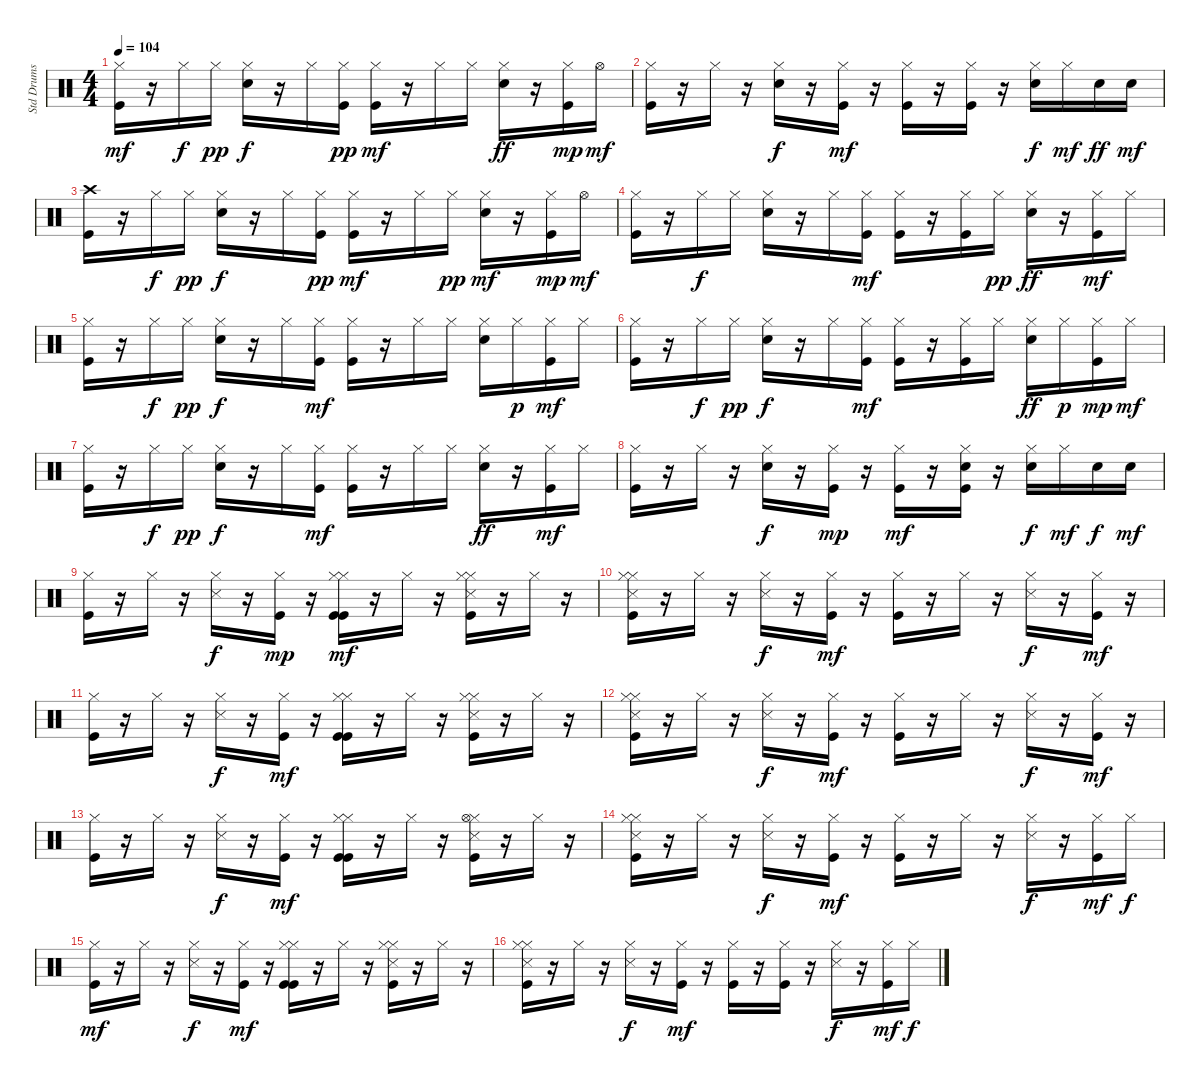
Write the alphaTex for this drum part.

\track ("Std Drums" "Std Drums") {instrument percussion}
\staff {score}
\articulation defaults
\ts (4 4)
\tempo 104
\clef neutral
\ks c
("Kick (hit)" "Hi-Hat (closed)").16{dy mf} r.16 "Hi-Hat (closed)".16{dy f} "Hi-Hat (closed)".16{dy pp} ("Snare (hit) 2" "Hi-Hat (closed)").16{dy f} r.16 "Hi-Hat (closed)".16 ("Kick (hit)" "Hi-Hat (closed)").16{dy pp} ("Hi-Hat (closed)" "Kick (hit)").16{dy mf} r.16 "Hi-Hat (closed)".16 "Hi-Hat (closed)".16 ("Snare (hit) 2" "Hi-Hat (closed)").16{dy ff} r.16 ("Kick (hit)" "Hi-Hat (closed)").16{dy mp} "Hi-Hat (open)".16{dy mf} |
("Hi-Hat (closed)" "Kick (hit)").16 r.16 "Hi-Hat (closed)".16 r.16 ("Snare (hit) 2" "Hi-Hat (closed)").16{dy f} r.16 ("Kick (hit)" "Hi-Hat (closed)").16{dy mf} r.16 ("Kick (hit)" "Hi-Hat (closed)").16 r.16 ("Kick (hit)" "Hi-Hat (closed)").16 r.16 ("Hi-Hat (closed)" "Snare (hit) 2").16{dy f} "Hi-Hat (closed)".16{dy mf} "Snare (hit) 2".16{dy ff} "Snare (hit) 2".16{dy mf} |
("Kick (hit)" "Crash high (hit)").16 r.16 "Hi-Hat (closed)".16{dy f} "Hi-Hat (closed)".16{dy pp} ("Snare (hit) 2" "Hi-Hat (closed)").16{dy f} r.16 "Hi-Hat (closed)".16 ("Kick (hit)" "Hi-Hat (closed)").16{dy pp} ("Kick (hit)" "Hi-Hat (closed)").16{dy mf} r.16 "Hi-Hat (closed)".16 "Hi-Hat (closed)".16{dy pp} ("Hi-Hat (closed)" "Snare (hit) 2").16{dy mf} r.16 ("Kick (hit)" "Hi-Hat (closed)").16{dy mp} "Hi-Hat (open)".16{dy mf} |
("Hi-Hat (closed)" "Kick (hit)").16 r.16 "Hi-Hat (closed)".16{dy f} "Hi-Hat (closed)".16 ("Hi-Hat (closed)" "Snare (hit) 2").16 r.16 "Hi-Hat (closed)".16 ("Hi-Hat (closed)" "Kick (hit)").16{dy mf} ("Hi-Hat (closed)" "Kick (hit)").16 r.16 ("Hi-Hat (closed)" "Kick (hit)").16 "Hi-Hat (closed)".16{dy pp} ("Snare (hit) 2" "Hi-Hat (closed)").16{dy ff} r.16 ("Hi-Hat (closed)" "Kick (hit)").16{dy mf} "Hi-Hat (closed)".16 |
("Kick (hit)" "Hi-Hat (closed)").16 r.16 "Hi-Hat (closed)".16{dy f} "Hi-Hat (closed)".16{dy pp} ("Snare (hit) 2" "Hi-Hat (closed)").16{dy f} r.16 "Hi-Hat (closed)".16 ("Hi-Hat (closed)" "Kick (hit)").16{dy mf} ("Hi-Hat (closed)" "Kick (hit)").16 r.16 "Hi-Hat (closed)".16 "Hi-Hat (closed)".16 ("Hi-Hat (closed)" "Snare (hit) 2").16 "Hi-Hat (closed)".16{dy p} ("Hi-Hat (closed)" "Kick (hit)").16{dy mf} "Hi-Hat (closed)".16 |
("Kick (hit)" "Hi-Hat (closed)").16 r.16 "Hi-Hat (closed)".16{dy f} "Hi-Hat (closed)".16{dy pp} ("Snare (hit) 2" "Hi-Hat (closed)").16{dy f} r.16 "Hi-Hat (closed)".16 ("Hi-Hat (closed)" "Kick (hit)").16{dy mf} ("Hi-Hat (closed)" "Kick (hit)").16 r.16 ("Hi-Hat (closed)" "Kick (hit)").16 "Hi-Hat (closed)".16 ("Snare (hit) 2" "Hi-Hat (closed)").16{dy ff} "Hi-Hat (closed)".16{dy p} ("Kick (hit)" "Hi-Hat (closed)").16{dy mp} "Hi-Hat (closed)".16{dy mf} |
("Kick (hit)" "Hi-Hat (closed)").16 r.16 "Hi-Hat (closed)".16{dy f} "Hi-Hat (closed)".16{dy pp} ("Hi-Hat (closed)" "Snare (hit) 2").16{dy f} r.16 "Hi-Hat (closed)".16 ("Hi-Hat (closed)" "Kick (hit)").16{dy mf} ("Kick (hit)" "Hi-Hat (closed)").16 r.16 "Hi-Hat (closed)".16 "Hi-Hat (closed)".16 ("Snare (hit) 2" "Hi-Hat (closed)").16{dy ff} r.16 ("Hi-Hat (closed)" "Kick (hit)").16{dy mf} "Hi-Hat (closed)".16 |
("Kick (hit)" "Hi-Hat (closed)").16 r.16 "Hi-Hat (closed)".16 r.16 ("Hi-Hat (closed)" "Snare (hit) 2").16{dy f} r.16 ("Hi-Hat (closed)" "Kick (hit)").16{dy mp} r.16 ("Hi-Hat (closed)" "Kick (hit)").16{dy mf} r.16 ("Hi-Hat (closed)" "Snare (hit) 2" "Kick (hit)").16 r.16 ("Snare (hit) 2" "Hi-Hat (closed)").16{dy f} "Hi-Hat (closed)".16{dy mf} "Snare (hit) 2".16{dy f} "Snare (hit) 2".16{dy mf} |
("Kick (hit)" "Hi-Hat (closed)").16 r.16 "Hi-Hat (closed)".16 r.16 ("Snare (side stick) 3" "Hi-Hat (closed)").16{dy f} r.16 ("Hi-Hat (closed)" "Kick (hit)").16{dy mp} r.16 ("Hi-Hat (closed)" "Kick (hit)" "Hi-Hat (closed)" "Kick (hit)").16{dy mf} r.16 "Hi-Hat (closed)".16 r.16 ("Snare (side stick) 3" "Kick (hit)" "Hi-Hat (closed)" "Hi-Hat (closed)").16 r.16 "Hi-Hat (closed)".16 r.16 |
("Hi-Hat (closed)" "Kick (hit)" "Snare (side stick) 3" "Hi-Hat (closed)").16 r.16 "Hi-Hat (closed)".16 r.16 ("Hi-Hat (closed)" "Snare (side stick) 3").16{dy f} r.16 ("Kick (hit)" "Hi-Hat (closed)").16{dy mf} r.16 ("Hi-Hat (closed)" "Kick (hit)").16 r.16 "Hi-Hat (closed)".16 r.16 ("Snare (side stick) 3" "Hi-Hat (closed)").16{dy f} r.16 ("Kick (hit)" "Hi-Hat (closed)").16{dy mf} r.16 |
("Kick (hit)" "Hi-Hat (closed)").16 r.16 "Hi-Hat (closed)".16 r.16 ("Hi-Hat (closed)" "Snare (side stick) 3").16{dy f} r.16 ("Kick (hit)" "Hi-Hat (closed)").16{dy mf} r.16 ("Kick (hit)" "Kick (hit)" "Hi-Hat (closed)" "Hi-Hat (closed)").16 r.16 "Hi-Hat (closed)".16 r.16 ("Kick (hit)" "Hi-Hat (closed)" "Snare (side stick) 3" "Hi-Hat (closed)").16 r.16 "Hi-Hat (closed)".16 r.16 |
("Snare (side stick) 3" "Hi-Hat (closed)" "Kick (hit)" "Hi-Hat (closed)").16 r.16 "Hi-Hat (closed)".16 r.16 ("Hi-Hat (closed)" "Snare (side stick) 3").16{dy f} r.16 ("Kick (hit)" "Hi-Hat (closed)").16{dy mf} r.16 ("Kick (hit)" "Hi-Hat (closed)").16 r.16 "Hi-Hat (closed)".16 r.16 ("Snare (side stick) 3" "Hi-Hat (closed)").16{dy f} r.16 ("Hi-Hat (closed)" "Kick (hit)").16{dy mf} r.16 |
("Hi-Hat (closed)" "Kick (hit)").16 r.16 "Hi-Hat (closed)".16 r.16 ("Snare (side stick) 3" "Hi-Hat (closed)").16{dy f} r.16 ("Kick (hit)" "Hi-Hat (closed)").16{dy mf} r.16 ("Hi-Hat (closed)" "Kick (hit)" "Kick (hit)" "Hi-Hat (closed)").16 r.16 "Hi-Hat (closed)".16 r.16 ("Kick (hit)" "Snare (side stick) 3" "Hi-Hat (closed)" "Hi-Hat (open)").16 r.16 "Hi-Hat (closed)".16 r.16 |
("Kick (hit)" "Hi-Hat (closed)" "Snare (side stick) 3" "Hi-Hat (closed)").16 r.16 "Hi-Hat (closed)".16 r.16 ("Snare (side stick) 3" "Hi-Hat (closed)").16{dy f} r.16 ("Kick (hit)" "Hi-Hat (closed)").16{dy mf} r.16 ("Kick (hit)" "Hi-Hat (closed)").16 r.16 "Hi-Hat (closed)".16 r.16 ("Snare (side stick) 3" "Hi-Hat (closed)").16{dy f} r.16 ("Kick (hit)" "Hi-Hat (closed)").16{dy mf} "Hi-Hat (closed)".16{dy f} |
("Kick (hit)" "Hi-Hat (closed)").16{dy mf} r.16 "Hi-Hat (closed)".16 r.16 ("Snare (side stick) 3" "Hi-Hat (closed)").16{dy f} r.16 ("Kick (hit)" "Hi-Hat (closed)").16{dy mf} r.16 ("Kick (hit)" "Hi-Hat (closed)" "Kick (hit)" "Hi-Hat (closed)").16 r.16 "Hi-Hat (closed)".16 r.16 ("Hi-Hat (closed)" "Kick (hit)" "Snare (side stick) 3" "Hi-Hat (closed)").16 r.16 "Hi-Hat (closed)".16 r.16 |
("Hi-Hat (closed)" "Snare (side stick) 3" "Kick (hit)" "Hi-Hat (closed)").16 r.16 "Hi-Hat (closed)".16 r.16 ("Snare (side stick) 3" "Hi-Hat (closed)").16{dy f} r.16 ("Kick (hit)" "Hi-Hat (closed)").16{dy mf} r.16 ("Kick (hit)" "Hi-Hat (closed)").16 r.16 ("Kick (hit)" "Hi-Hat (closed)").16 r.16 ("Snare (side stick) 3" "Hi-Hat (closed)").16{dy f} r.16 ("Hi-Hat (closed)" "Kick (hit)").16{dy mf} "Hi-Hat (closed)".16{dy f}
